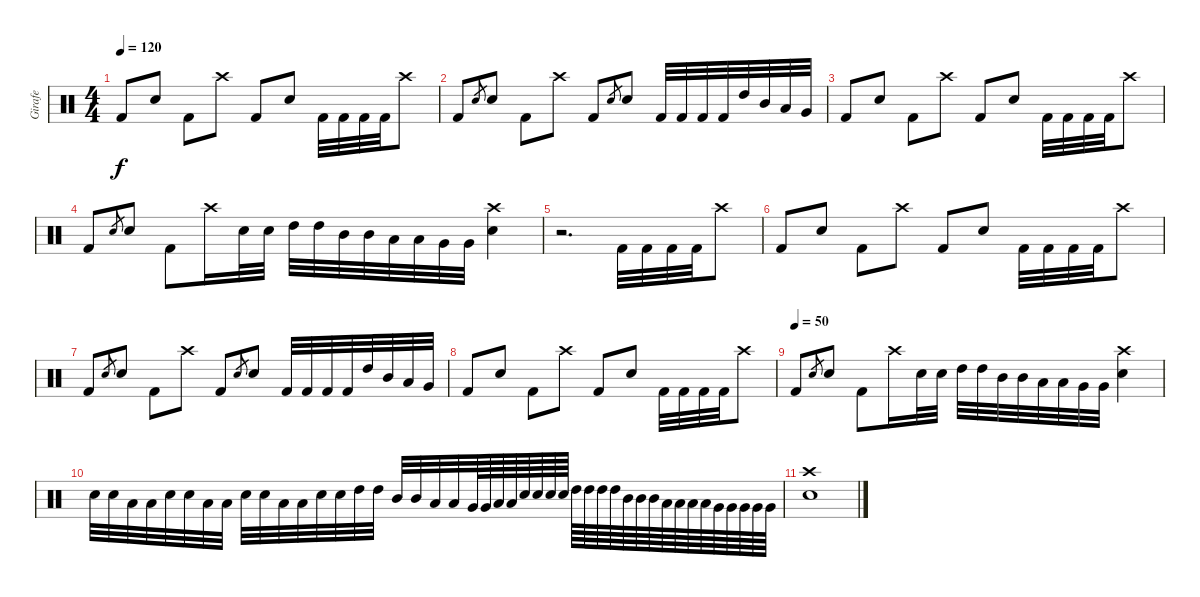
\track ("Girafe" "Girafe") {instrument percussion}
\staff {score}
\articulation defaults
\ts (4 4)
\tempo 120
\clef neutral
\ks c "Kick (hit) 2".8{dy f} "Electric Snare (hit)".8 "Kick (hit) 2".8 "Crash high (hit)".8 "Kick (hit) 2".8 "Electric Snare (hit)".8 "Kick (hit) 2".32 "Kick (hit) 2".32 "Kick (hit) 2".32 "Kick (hit) 2".32 "Crash high (hit)".8
|
"Kick (hit) 2".8 "Electric Snare (hit)".8{gr} "Electric Snare (hit)".8 "Kick (hit) 2".8 "Crash high (hit)".8 "Kick (hit) 2".8 "Electric Snare (hit)".8{gr} "Electric Snare (hit)".8 "Kick (hit) 2".32 "Kick (hit) 2".32 "Kick (hit) 2".32 "Kick (hit) 2".32 "High Tom (hit)".32 "Mid Tom (hit)".32 "Low Tom (hit)".32 "Very Low Tom (hit)".32 |
"Kick (hit) 2".8 "Electric Snare (hit)".8 "Kick (hit) 2".8 "Crash high (hit)".8 "Kick (hit) 2".8 "Electric Snare (hit)".8 "Kick (hit) 2".32 "Kick (hit) 2".32 "Kick (hit) 2".32 "Kick (hit) 2".32 "Crash high (hit)".8 |
"Kick (hit) 2".8 "Electric Snare (hit)".8{gr} "Electric Snare (hit)".8 "Kick (hit) 2".8 "Crash high (hit)".16 "Electric Snare (hit)".32 "Electric Snare (hit)".32 "High Tom (hit)".32 "High Tom (hit)".32 "Mid Tom (hit)".32 "Mid Tom (hit)".32 "Low Tom (hit)".32 "Low Tom (hit)".32 "Very Low Tom (hit)".32 "Very Low Tom (hit)".32 ("Electric Snare (hit)" "Crash high (hit)").4 |
r.2{d} "Kick (hit) 2".32 "Kick (hit) 2".32 "Kick (hit) 2".32 "Kick (hit) 2".32 "Crash high (hit)".8 |
"Kick (hit) 2".8 "Electric Snare (hit)".8 "Kick (hit) 2".8 "Crash high (hit)".8 "Kick (hit) 2".8 "Electric Snare (hit)".8 "Kick (hit) 2".32 "Kick (hit) 2".32 "Kick (hit) 2".32 "Kick (hit) 2".32 "Crash high (hit)".8 |
"Kick (hit) 2".8 "Electric Snare (hit)".8{gr} "Electric Snare (hit)".8 "Kick (hit) 2".8 "Crash high (hit)".8 "Kick (hit) 2".8 "Electric Snare (hit)".8{gr} "Electric Snare (hit)".8 "Kick (hit) 2".32 "Kick (hit) 2".32 "Kick (hit) 2".32 "Kick (hit) 2".32 "High Tom (hit)".32 "Mid Tom (hit)".32 "Low Tom (hit)".32 "Very Low Tom (hit)".32 |
"Kick (hit) 2".8 "Electric Snare (hit)".8 "Kick (hit) 2".8 "Crash high (hit)".8 "Kick (hit) 2".8 "Electric Snare (hit)".8 "Kick (hit) 2".32 "Kick (hit) 2".32 "Kick (hit) 2".32 "Kick (hit) 2".32 "Crash high (hit)".8 |
\tempo (50)
"Kick (hit) 2".8 "Electric Snare (hit)".8{gr} "Electric Snare (hit)".8 "Kick (hit) 2".8 "Crash high (hit)".16 "Electric Snare (hit)".32 "Electric Snare (hit)".32 "High Tom (hit)".32 "High Tom (hit)".32 "Mid Tom (hit)".32 "Mid Tom (hit)".32 "Low Tom (hit)".32 "Low Tom (hit)".32 "Very Low Tom (hit)".32 "Very Low Tom (hit)".32 ("Electric Snare (hit)" "Crash high (hit)").4 |
"Electric Snare (hit)".32 "Electric Snare (hit)".32 "Low Tom (hit)".32 "Low Tom (hit)".32 "Electric Snare (hit)".32 "Electric Snare (hit)".32 "Low Tom (hit)".32 "Low Tom (hit)".32 "Electric Snare (hit)".32 "Electric Snare (hit)".32 "Low Tom (hit)".32 "Low Tom (hit)".32 "Electric Snare (hit)".32 "Electric Snare (hit)".32 "High Tom (hit)".32 "High Tom (hit)".32 "Mid Tom (hit)".32 "Mid Tom (hit)".32 "Low Tom (hit)".32 "Low Tom (hit)".32 "Very Low Tom (hit)".64 "Very Low Tom (hit)".64 "Low Floor Tom (hit)".64 "Low Floor Tom (hit)".64 "Electric Snare (hit)".64 "Electric Snare (hit)".64 "Electric Snare (hit)".64 "Electric Snare (hit)".64 "High Tom (hit)".64 "High Tom (hit)".64 "High Tom (hit)".64 "High Tom (hit)".64 "Mid Tom (hit)".64 "Mid Tom (hit)".64 "Mid Tom (hit)".64 "Low Tom (hit)".64 "Low Tom (hit)".64 "Low Tom (hit)".64 "Low Tom (hit)".64 "Very Low Tom (hit)".64 "Very Low Tom (hit)".64 "Very Low Tom (hit)".64 "Very Low Tom (hit)".64 "Very Low Tom (hit)".64 |
("Crash high (hit)" "Electric Snare (hit)").1
